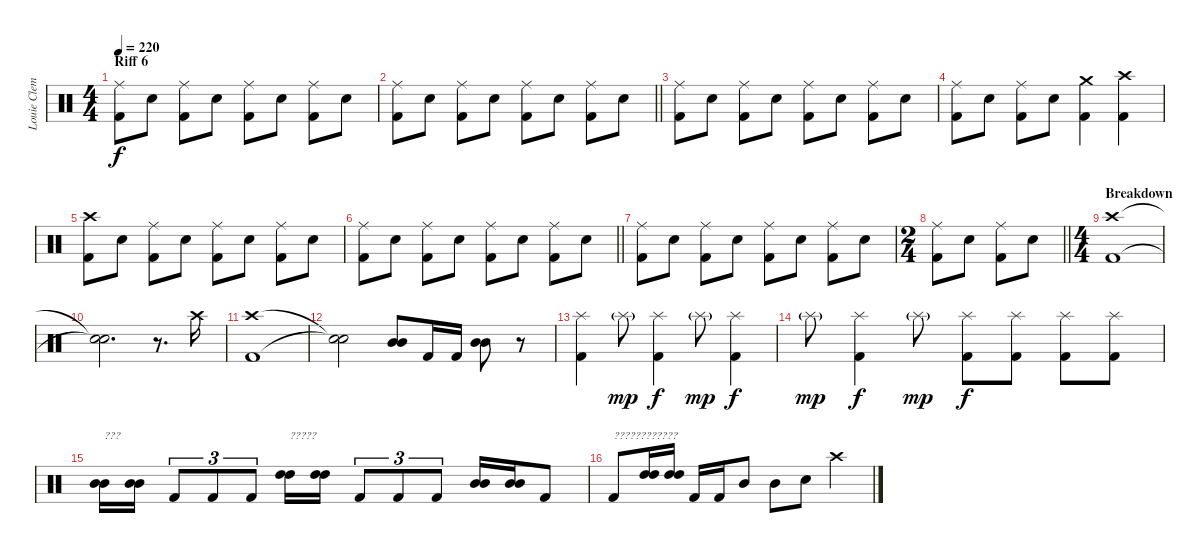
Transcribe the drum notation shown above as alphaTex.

\track ("Louie Clemente (Drums)" "Louie Clem") {instrument percussion}
\staff {score}
\articulation defaults
\ts (4 4)
\section ("" "Riff 6")
\tempo 220
\clef neutral
\ks c
("Ride (middle)" "Kick (hit) 2").8{dy f} "Electric Snare (hit)".8 ("Ride (middle)" "Kick (hit) 2").8 "Electric Snare (hit)".8 ("Ride (middle)" "Kick (hit) 2").8 "Electric Snare (hit)".8 ("Ride (middle)" "Kick (hit) 2").8 "Electric Snare (hit)".8 |
\barLineRight lightlight
("Ride (middle)" "Kick (hit) 2").8 "Electric Snare (hit)".8 ("Ride (middle)" "Kick (hit) 2").8 "Electric Snare (hit)".8 ("Ride (middle)" "Kick (hit) 2").8 "Electric Snare (hit)".8 ("Ride (middle)" "Kick (hit) 2").8 "Electric Snare (hit)".8 |
("Ride (middle)" "Kick (hit) 2").8 "Electric Snare (hit)".8 ("Ride (middle)" "Kick (hit) 2").8 "Electric Snare (hit)".8 ("Ride (middle)" "Kick (hit) 2").8 "Electric Snare (hit)".8 ("Ride (middle)" "Kick (hit) 2").8 "Electric Snare (hit)".8 |
("Ride (middle)" "Kick (hit) 2").8 "Electric Snare (hit)".8 ("Ride (middle)" "Kick (hit) 2").8 "Electric Snare (hit)".8 ("Crash medium (hit)" "Kick (hit) 2").4 ("Crash high (hit)" "Kick (hit) 2").4 |
("Crash high (hit)" "Kick (hit) 2").8 "Electric Snare (hit)".8 ("Ride (middle)" "Kick (hit) 2").8 "Electric Snare (hit)".8 ("Ride (middle)" "Kick (hit) 2").8 "Electric Snare (hit)".8 ("Ride (middle)" "Kick (hit) 2").8 "Electric Snare (hit)".8 |
\barLineRight lightlight
("Ride (middle)" "Kick (hit) 2").8 "Electric Snare (hit)".8 ("Ride (middle)" "Kick (hit) 2").8 "Electric Snare (hit)".8 ("Ride (middle)" "Kick (hit) 2").8 "Electric Snare (hit)".8 ("Ride (middle)" "Kick (hit) 2").8 "Electric Snare (hit)".8 |
("Ride (middle)" "Kick (hit) 2").8 "Electric Snare (hit)".8 ("Ride (middle)" "Kick (hit) 2").8 "Electric Snare (hit)".8 ("Ride (middle)" "Kick (hit) 2").8 "Electric Snare (hit)".8 ("Ride (middle)" "Kick (hit) 2").8 "Electric Snare (hit)".8 |
\ts (2 4)
\barLineRight lightlight
("Ride (middle)" "Kick (hit) 2").8 "Electric Snare (hit)".8 ("Ride (middle)" "Kick (hit) 2").8 "Electric Snare (hit)".8 |
\ts (4 4)
\section ("" "Breakdown")
("Crash high (hit)" "Kick (hit) 2").1 |
("Snare (hit)"{t} "Snare (hit)"{t}).2{d} r.8{d} "Crash high (hit)".16 |
("Crash high (hit)" "Kick (hit) 2").1 |
("Snare (hit)"{t} "Snare (hit)"{t}).2 ("Mid Tom (hit)" "Mid Tom (hit)").8 "Kick (hit) 2".16 "Kick (hit) 2".16 ("Mid Tom (hit)" "Mid Tom (hit)").8 r.8 |
("Splash (hit)" "Kick (hit) 2").4 "Splash (hit)"{g}.8{dy mp} ("Splash (hit)" "Kick (hit) 2").4{dy f} "Splash (hit)"{g}.8{dy mp} ("Splash (hit)" "Kick (hit) 2").4{dy f} |
"Splash (hit)"{g}.8{dy mp} ("Splash (hit)" "Kick (hit) 2").4{dy f} "Splash (hit)"{g}.8{dy mp} ("Splash (hit)" "Kick (hit) 2").8{dy f} ("Splash (hit)" "Kick (hit) 2").8 ("Splash (hit)" "Kick (hit) 2").8 ("Splash (hit)" "Kick (hit) 2").8 |
("Mid Tom (hit)" "Mid Tom (hit)").16{txt "???"} ("Mid Tom (hit)" "Mid Tom (hit)").16 "Kick (hit) 2".8{tu (3 2)} "Kick (hit) 2".8{tu (3 2)} "Kick (hit) 2".8{tu (3 2)} ("High Tom (hit)" "High Tom (hit)").16{txt "?????"} ("High Tom (hit)" "High Tom (hit)").16 "Kick (hit) 2".8{tu (3 2)} "Kick (hit) 2".8{tu (3 2)} "Kick (hit) 2".8{tu (3 2)} ("Mid Tom (hit)" "Mid Tom (hit)").16 ("Mid Tom (hit)" "Mid Tom (hit)").16 "Kick (hit) 2".8 |
"Kick (hit) 2".8{txt "????????????"} ("High Tom (hit)" "High Tom (hit)").16 ("High Tom (hit)" "High Tom (hit)").16 "Kick (hit) 2".16 "Kick (hit) 2".16 "Mid Tom (hit)".8 "Mid Tom (hit)".8 "Electric Snare (hit)".8 "Crash high (hit)".4
